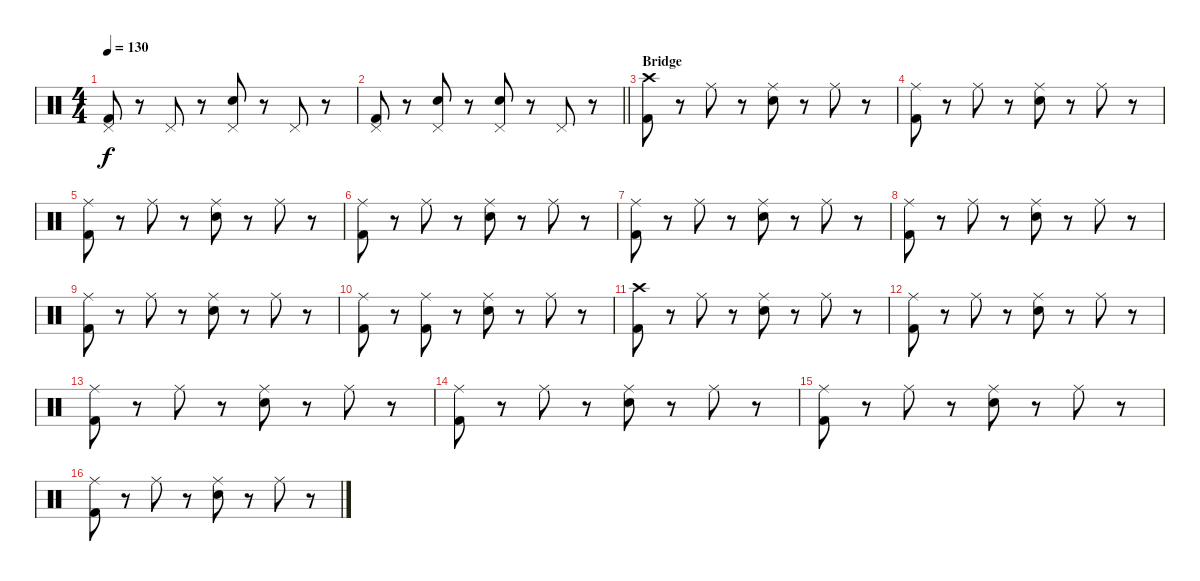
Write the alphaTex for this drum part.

\track "" {instrument percussion}
\staff {score}
\articulation defaults
\ts (4 4)
\tempo 130
\clef neutral
\ks c
("Pedal Hi-Hat (hit)" "Kick (hit) 2").8{dy f} r.8 "Pedal Hi-Hat (hit)".8 r.8 ("Pedal Hi-Hat (hit)" "Electric Snare (hit)").8 r.8 "Pedal Hi-Hat (hit)".8 r.8 |
\barLineRight lightlight
("Pedal Hi-Hat (hit)" "Kick (hit) 2").8 r.8 ("Pedal Hi-Hat (hit)" "Electric Snare (hit)").8 r.8 ("Pedal Hi-Hat (hit)" "Electric Snare (hit)").8 r.8 "Pedal Hi-Hat (hit)".8 r.8 |
\section ("" "Bridge")
("Crash high (hit)" "Kick (hit) 2").8 r.8 "Ride (middle)".8 r.8 ("Ride (middle)" "Electric Snare (hit)").8 r.8 "Ride (middle)".8 r.8 |
("Ride (middle)" "Kick (hit) 2").8 r.8 "Ride (middle)".8 r.8 ("Ride (middle)" "Electric Snare (hit)").8 r.8 "Ride (middle)".8 r.8 |
("Ride (middle)" "Kick (hit) 2").8 r.8 "Ride (middle)".8 r.8 ("Ride (middle)" "Electric Snare (hit)").8 r.8 "Ride (middle)".8 r.8 |
("Ride (middle)" "Kick (hit) 2").8 r.8 "Ride (middle)".8 r.8 ("Ride (middle)" "Electric Snare (hit)").8 r.8 "Ride (middle)".8 r.8 |
("Ride (middle)" "Kick (hit) 2").8 r.8 "Ride (middle)".8 r.8 ("Ride (middle)" "Electric Snare (hit)").8 r.8 "Ride (middle)".8 r.8 |
("Ride (middle)" "Kick (hit) 2").8 r.8 "Ride (middle)".8 r.8 ("Ride (middle)" "Electric Snare (hit)").8 r.8 "Ride (middle)".8 r.8 |
("Ride (middle)" "Kick (hit) 2").8 r.8 "Ride (middle)".8 r.8 ("Ride (middle)" "Electric Snare (hit)").8 r.8 "Ride (middle)".8 r.8 |
("Ride (middle)" "Kick (hit) 2").8 r.8 ("Ride (middle)" "Kick (hit) 2").8 r.8 ("Ride (middle)" "Electric Snare (hit)").8 r.8 "Ride (middle)".8 r.8 |
("Crash high (hit)" "Kick (hit) 2").8 r.8 "Ride (middle)".8 r.8 ("Ride (middle)" "Electric Snare (hit)").8 r.8 "Ride (middle)".8 r.8 |
("Ride (middle)" "Kick (hit) 2").8 r.8 "Ride (middle)".8 r.8 ("Ride (middle)" "Electric Snare (hit)").8 r.8 "Ride (middle)".8 r.8 |
("Ride (middle)" "Kick (hit) 2").8 r.8 "Ride (middle)".8 r.8 ("Ride (middle)" "Electric Snare (hit)").8 r.8 "Ride (middle)".8 r.8 |
("Ride (middle)" "Kick (hit) 2").8 r.8 "Ride (middle)".8 r.8 ("Ride (middle)" "Electric Snare (hit)").8 r.8 "Ride (middle)".8 r.8 |
("Ride (middle)" "Kick (hit) 2").8 r.8 "Ride (middle)".8 r.8 ("Ride (middle)" "Electric Snare (hit)").8 r.8 "Ride (middle)".8 r.8 |
("Ride (middle)" "Kick (hit) 2").8 r.8 "Ride (middle)".8 r.8 ("Ride (middle)" "Electric Snare (hit)").8 r.8 "Ride (middle)".8 r.8
